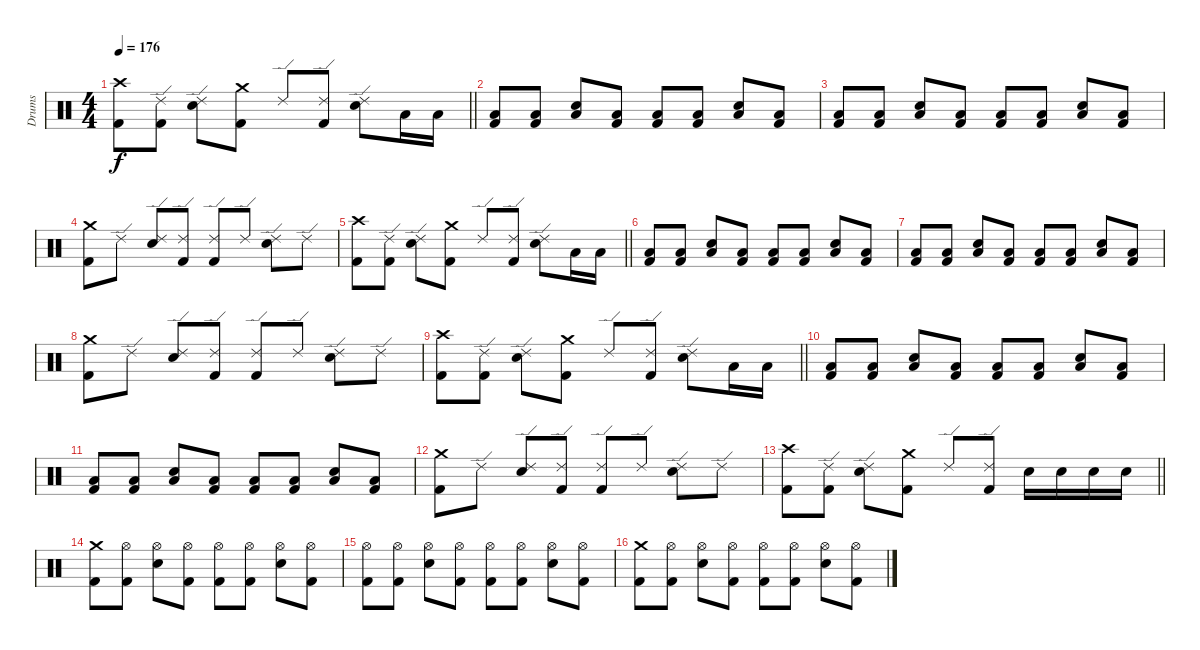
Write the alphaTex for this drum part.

\track ("Drums" "Drums") {instrument percussion}
\staff {score}
\articulation defaults
\ts (4 4)
\tempo 176
\clef neutral
\barLineRight lightlight
\ks c
("Crash high (hit)" "Kick (hit) 2").8{dy f} ("Ride (edge) 2" "Kick (hit) 2").8 ("Ride (edge) 2" "Electric Snare (hit)").8 ("Crash medium (hit)" "Kick (hit) 2").8 "Ride (edge) 2".8 ("Ride (edge) 2" "Kick (hit) 2").8 ("Ride (edge) 2" "Electric Snare (hit)").8 "Low Floor Tom (hit)".16 "Low Floor Tom (hit)".16 |
("Low Floor Tom (hit)" "Kick (hit) 2").8 ("Low Floor Tom (hit)" "Kick (hit) 2").8 ("Electric Snare (hit)" "Low Floor Tom (hit)").8 ("Low Floor Tom (hit)" "Kick (hit) 2").8 ("Low Floor Tom (hit)" "Kick (hit) 2").8 ("Low Floor Tom (hit)" "Kick (hit) 2").8 ("Electric Snare (hit)" "Low Floor Tom (hit)").8 ("Low Floor Tom (hit)" "Kick (hit) 2").8 |
("Low Floor Tom (hit)" "Kick (hit) 2").8 ("Low Floor Tom (hit)" "Kick (hit) 2").8 ("Electric Snare (hit)" "Low Floor Tom (hit)").8 ("Low Floor Tom (hit)" "Kick (hit) 2").8 ("Low Floor Tom (hit)" "Kick (hit) 2").8 ("Low Floor Tom (hit)" "Kick (hit) 2").8 ("Electric Snare (hit)" "Low Floor Tom (hit)").8 ("Low Floor Tom (hit)" "Kick (hit) 2").8 |
("Crash medium (hit)" "Kick (hit) 2").8 "Ride (edge) 2".8 ("Ride (edge) 2" "Electric Snare (hit)").8 ("Ride (edge) 2" "Kick (hit) 2").8 ("Ride (edge) 2" "Kick (hit) 2").8 "Ride (edge) 2".8 ("Ride (edge) 2" "Electric Snare (hit)").8 "Ride (edge) 2".8 |
\barLineRight lightlight
("Crash high (hit)" "Kick (hit) 2").8 ("Ride (edge) 2" "Kick (hit) 2").8 ("Ride (edge) 2" "Electric Snare (hit)").8 ("Crash medium (hit)" "Kick (hit) 2").8 "Ride (edge) 2".8 ("Ride (edge) 2" "Kick (hit) 2").8 ("Ride (edge) 2" "Electric Snare (hit)").8 "Low Floor Tom (hit)".16 "Low Floor Tom (hit)".16 |
("Low Floor Tom (hit)" "Kick (hit) 2").8 ("Low Floor Tom (hit)" "Kick (hit) 2").8 ("Electric Snare (hit)" "Low Floor Tom (hit)").8 ("Low Floor Tom (hit)" "Kick (hit) 2").8 ("Low Floor Tom (hit)" "Kick (hit) 2").8 ("Low Floor Tom (hit)" "Kick (hit) 2").8 ("Electric Snare (hit)" "Low Floor Tom (hit)").8 ("Low Floor Tom (hit)" "Kick (hit) 2").8 |
("Low Floor Tom (hit)" "Kick (hit) 2").8 ("Low Floor Tom (hit)" "Kick (hit) 2").8 ("Electric Snare (hit)" "Low Floor Tom (hit)").8 ("Low Floor Tom (hit)" "Kick (hit) 2").8 ("Low Floor Tom (hit)" "Kick (hit) 2").8 ("Low Floor Tom (hit)" "Kick (hit) 2").8 ("Electric Snare (hit)" "Low Floor Tom (hit)").8 ("Low Floor Tom (hit)" "Kick (hit) 2").8 |
("Crash medium (hit)" "Kick (hit) 2").8 "Ride (edge) 2".8 ("Ride (edge) 2" "Electric Snare (hit)").8 ("Ride (edge) 2" "Kick (hit) 2").8 ("Ride (edge) 2" "Kick (hit) 2").8 "Ride (edge) 2".8 ("Ride (edge) 2" "Electric Snare (hit)").8 "Ride (edge) 2".8 |
\barLineRight lightlight
("Crash high (hit)" "Kick (hit) 2").8 ("Ride (edge) 2" "Kick (hit) 2").8 ("Ride (edge) 2" "Electric Snare (hit)").8 ("Crash medium (hit)" "Kick (hit) 2").8 "Ride (edge) 2".8 ("Ride (edge) 2" "Kick (hit) 2").8 ("Ride (edge) 2" "Electric Snare (hit)").8 "Low Floor Tom (hit)".16 "Low Floor Tom (hit)".16 |
("Low Floor Tom (hit)" "Kick (hit) 2").8 ("Low Floor Tom (hit)" "Kick (hit) 2").8 ("Electric Snare (hit)" "Low Floor Tom (hit)").8 ("Low Floor Tom (hit)" "Kick (hit) 2").8 ("Low Floor Tom (hit)" "Kick (hit) 2").8 ("Low Floor Tom (hit)" "Kick (hit) 2").8 ("Electric Snare (hit)" "Low Floor Tom (hit)").8 ("Low Floor Tom (hit)" "Kick (hit) 2").8 |
("Low Floor Tom (hit)" "Kick (hit) 2").8 ("Low Floor Tom (hit)" "Kick (hit) 2").8 ("Electric Snare (hit)" "Low Floor Tom (hit)").8 ("Low Floor Tom (hit)" "Kick (hit) 2").8 ("Low Floor Tom (hit)" "Kick (hit) 2").8 ("Low Floor Tom (hit)" "Kick (hit) 2").8 ("Electric Snare (hit)" "Low Floor Tom (hit)").8 ("Low Floor Tom (hit)" "Kick (hit) 2").8 |
("Crash medium (hit)" "Kick (hit) 2").8 "Ride (edge) 2".8 ("Ride (edge) 2" "Electric Snare (hit)").8 ("Ride (edge) 2" "Kick (hit) 2").8 ("Ride (edge) 2" "Kick (hit) 2").8 "Ride (edge) 2".8 ("Ride (edge) 2" "Electric Snare (hit)").8 "Ride (edge) 2".8 |
\barLineRight lightlight
("Crash high (hit)" "Kick (hit) 2").8 ("Ride (edge) 2" "Kick (hit) 2").8 ("Ride (edge) 2" "Electric Snare (hit)").8 ("Crash medium (hit)" "Kick (hit) 2").8 "Ride (edge) 2".8 ("Ride (edge) 2" "Kick (hit) 2").8 "Electric Snare (hit)".16 "Electric Snare (hit)".16 "Electric Snare (hit)".16 "Electric Snare (hit)".16 |
("Crash medium (hit)" "Kick (hit) 2").8 ("Hi-Hat (open)" "Kick (hit) 2").8 ("Hi-Hat (open)" "Electric Snare (hit)").8 ("Hi-Hat (open)" "Kick (hit) 2").8 ("Hi-Hat (open)" "Kick (hit) 2").8 ("Hi-Hat (open)" "Kick (hit) 2").8 ("Hi-Hat (open)" "Electric Snare (hit)").8 ("Hi-Hat (open)" "Kick (hit) 2").8 |
("Hi-Hat (open)" "Kick (hit) 2").8 ("Hi-Hat (open)" "Kick (hit) 2").8 ("Hi-Hat (open)" "Electric Snare (hit)").8 ("Hi-Hat (open)" "Kick (hit) 2").8 ("Hi-Hat (open)" "Kick (hit) 2").8 ("Hi-Hat (open)" "Kick (hit) 2").8 ("Hi-Hat (open)" "Electric Snare (hit)").8 ("Hi-Hat (open)" "Kick (hit) 2").8 |
("Crash medium (hit)" "Kick (hit) 2").8 ("Hi-Hat (open)" "Kick (hit) 2").8 ("Hi-Hat (open)" "Electric Snare (hit)").8 ("Hi-Hat (open)" "Kick (hit) 2").8 ("Hi-Hat (open)" "Kick (hit) 2").8 ("Hi-Hat (open)" "Kick (hit) 2").8 ("Hi-Hat (open)" "Electric Snare (hit)").8 ("Hi-Hat (open)" "Kick (hit) 2").8
